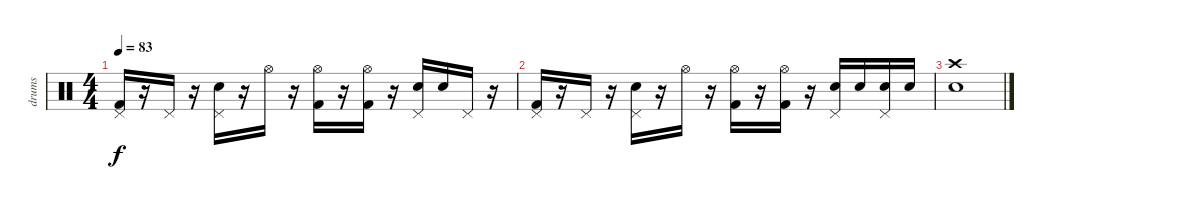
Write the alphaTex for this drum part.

\track ("drums" "drums") {instrument percussion}
\staff {score}
\articulation defaults
\ts (4 4)
\tempo 83
\clef neutral
\ks c
("Kick (hit) 2" "Pedal Hi-Hat (hit)").16{dy f} r.16 "Pedal Hi-Hat (hit)".16 r.16 ("Electric Snare (hit)" "Pedal Hi-Hat (hit)").16 r.16 "Hi-Hat (open)".16 r.16 ("Kick (hit) 2" "Hi-Hat (open)").16 r.16 ("Kick (hit) 2" "Hi-Hat (open)").16 r.16 ("Electric Snare (hit)" "Pedal Hi-Hat (hit)").16 "Electric Snare (hit)".16 "Pedal Hi-Hat (hit)".16 r.16 |
("Kick (hit) 2" "Pedal Hi-Hat (hit)").16 r.16 "Pedal Hi-Hat (hit)".16 r.16 ("Electric Snare (hit)" "Pedal Hi-Hat (hit)").16 r.16 "Hi-Hat (open)".16 r.16 ("Kick (hit) 2" "Hi-Hat (open)").16 r.16 ("Kick (hit) 2" "Hi-Hat (open)").16 r.16 ("Electric Snare (hit)" "Pedal Hi-Hat (hit)").16 "Electric Snare (hit)".16 ("Electric Snare (hit)" "Pedal Hi-Hat (hit)").16 "Electric Snare (hit)".16 |
("Electric Snare (hit)" "Crash high (hit)").1
